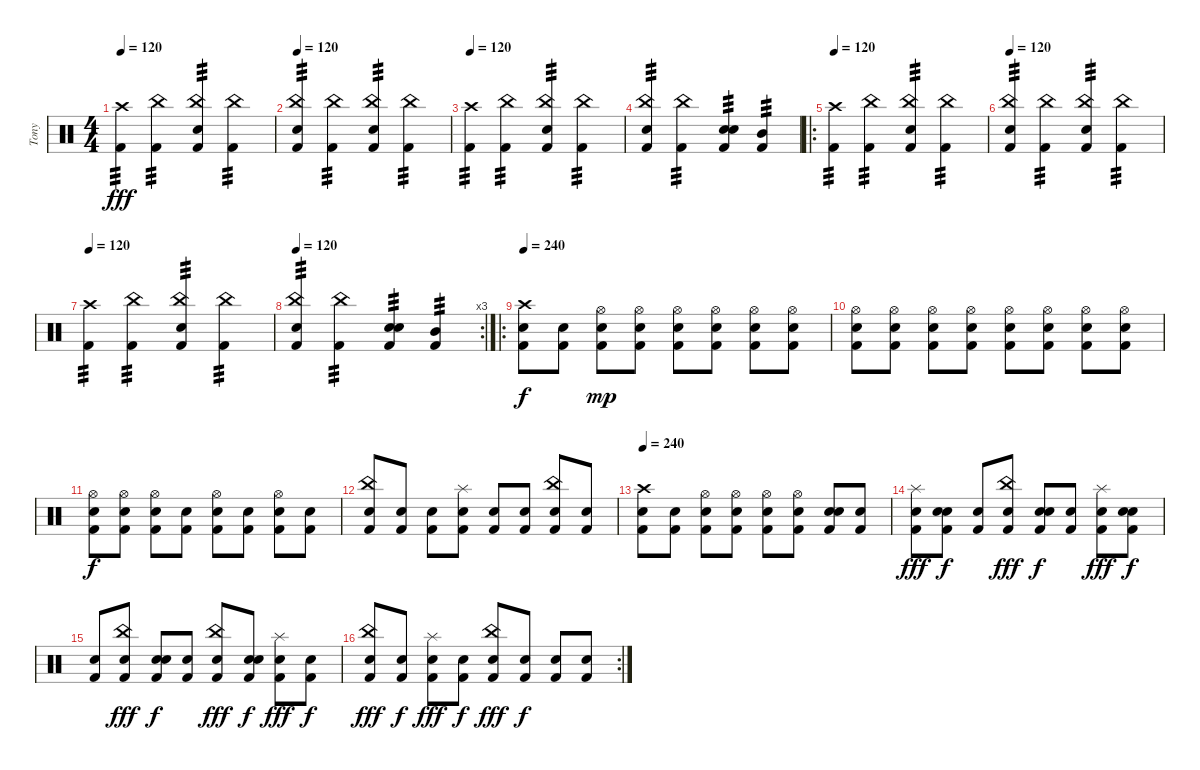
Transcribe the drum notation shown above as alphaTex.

\track ("Tony" "Tony") {instrument percussion}
\staff {score}
\articulation defaults
\ts (4 4)
\tempo 120
\clef neutral
\ks c
("Crash high (hit)" "Kick (hit) 2").4{tp 3 dy fff} ("China (hit)" "Kick (hit) 2").4{tp 3} ("China (hit)" "Snare (hit) 2" "Kick (hit) 2").4{tp 3} ("China (hit)" "Kick (hit) 2").4{tp 3} |
\tempo 120
("China (hit)" "Snare (hit)" "Kick (hit) 2").4{tp 3} ("China (hit)" "Kick (hit) 2").4{tp 3} ("China (hit)" "Snare (hit) 2" "Kick (hit) 2").4{tp 3} ("China (hit)" "Kick (hit) 2").4{tp 3} |
\tempo 120
("Crash high (hit)" "Kick (hit) 2").4{tp 3} ("China (hit)" "Kick (hit) 2").4{tp 3} ("China (hit)" "Snare (hit) 2" "Kick (hit) 2").4{tp 3} ("China (hit)" "Kick (hit) 2").4{tp 3} |
("China (hit)" "Snare (hit)" "Kick (hit) 2").4{tp 3} ("China (hit)" "Kick (hit) 2").4{tp 3} ("Snare (hit) 2" "Snare (hit)" "Kick (hit) 2").4{tp 3} ("Mid Tom (hit)" "Kick (hit) 2").4{tp 3} |
\ro
\tempo 120
("Crash high (hit)" "Kick (hit) 2").4{tp 3} ("China (hit)" "Kick (hit) 2").4{tp 3} ("China (hit)" "Snare (hit) 2" "Kick (hit) 2").4{tp 3} ("China (hit)" "Kick (hit) 2").4{tp 3} |
\tempo 120
("China (hit)" "Snare (hit)" "Kick (hit) 2").4{tp 3} ("China (hit)" "Kick (hit) 2").4{tp 3} ("China (hit)" "Snare (hit) 2" "Kick (hit) 2").4{tp 3} ("China (hit)" "Kick (hit) 2").4{tp 3} |
\tempo 120
("Crash high (hit)" "Kick (hit) 2").4{tp 3} ("China (hit)" "Kick (hit) 2").4{tp 3} ("China (hit)" "Snare (hit) 2" "Kick (hit) 2").4{tp 3} ("China (hit)" "Kick (hit) 2").4{tp 3} |
\rc 3
\tempo 120
("China (hit)" "Snare (hit)" "Kick (hit) 2").4{tp 3} ("China (hit)" "Kick (hit) 2").4{tp 3} ("Snare (hit) 2" "Snare (hit)" "Kick (hit) 2").4{tp 3} ("Mid Tom (hit)" "Kick (hit) 2").4{tp 3} |
\ro
\tempo 240
("Crash high (hit)" "Snare (hit) 2" "Kick (hit) 2").8{dy f} ("Snare (hit) 2" "Kick (hit) 2").8 ("Hi-Hat (open)" "Snare (hit) 2" "Kick (hit) 2").8{dy mp} ("Hi-Hat (open)" "Snare (hit) 2" "Kick (hit) 2").8 ("Hi-Hat (open)" "Snare (hit) 2" "Kick (hit) 2").8 ("Hi-Hat (open)" "Snare (hit) 2" "Kick (hit) 2").8 ("Hi-Hat (open)" "Snare (hit) 2" "Kick (hit) 2").8 ("Hi-Hat (open)" "Snare (hit) 2" "Kick (hit) 2").8 |
("Hi-Hat (open)" "Snare (hit) 2" "Kick (hit) 2").8 ("Hi-Hat (open)" "Snare (hit) 2" "Kick (hit) 2").8 ("Hi-Hat (open)" "Snare (hit) 2" "Kick (hit) 2").8 ("Hi-Hat (open)" "Snare (hit) 2" "Kick (hit) 2").8 ("Hi-Hat (open)" "Snare (hit) 2" "Kick (hit) 2").8 ("Hi-Hat (open)" "Snare (hit) 2" "Kick (hit) 2").8 ("Hi-Hat (open)" "Snare (hit) 2" "Kick (hit) 2").8 ("Hi-Hat (open)" "Snare (hit) 2" "Kick (hit) 2").8 |
("Hi-Hat (open)" "Snare (hit) 2" "Kick (hit) 2").8{dy f} ("Hi-Hat (open)" "Snare (hit) 2" "Kick (hit) 2").8 ("Hi-Hat (open)" "Snare (hit) 2" "Kick (hit) 2").8 ("Snare (hit) 2" "Kick (hit) 2").8 ("Hi-Hat (open)" "Snare (hit) 2" "Kick (hit) 2").8 ("Snare (hit) 2" "Kick (hit) 2").8 ("Hi-Hat (open)" "Snare (hit) 2" "Kick (hit) 2").8 ("Snare (hit) 2" "Kick (hit) 2").8 |
("China (hit)" "Snare (hit) 2" "Kick (hit) 2").8 ("Snare (hit) 2" "Kick (hit) 2").8 ("Snare (hit) 2" "Kick (hit) 2").8 ("Splash (hit)" "Snare (hit) 2" "Kick (hit) 2").8 ("Snare (hit) 2" "Kick (hit) 2").8 ("Snare (hit) 2" "Kick (hit) 2").8 ("China (hit)" "Snare (hit) 2" "Kick (hit) 2").8 ("Snare (hit) 2" "Kick (hit) 2").8 |
\tempo 240
("Crash high (hit)" "Snare (hit) 2" "Kick (hit) 2").8 ("Snare (hit) 2" "Kick (hit) 2").8 ("Hi-Hat (open)" "Snare (hit) 2" "Kick (hit) 2").8 ("Hi-Hat (open)" "Snare (hit) 2" "Kick (hit) 2").8 ("Hi-Hat (open)" "Snare (hit) 2" "Kick (hit) 2").8 ("Hi-Hat (open)" "Snare (hit) 2" "Kick (hit) 2").8 ("Snare (hit)" "Snare (hit) 2" "Kick (hit) 2").8 ("Snare (hit) 2" "Kick (hit) 2").8 |
("Splash (hit)" "Snare (hit) 2" "Kick (hit) 2").8{dy fff} ("Snare (hit)" "Snare (hit) 2" "Kick (hit) 2").8{dy f} ("Snare (hit) 2" "Kick (hit) 2").8 ("China (hit)" "Snare (hit) 2" "Kick (hit) 2").8{dy fff} ("Snare (hit)" "Snare (hit) 2" "Kick (hit) 2").8{dy f} ("Snare (hit) 2" "Kick (hit) 2").8 ("Splash (hit)" "Snare (hit) 2" "Kick (hit) 2").8{dy fff} ("Snare (hit)" "Snare (hit) 2" "Kick (hit) 2").8{dy f} |
("Snare (hit) 2" "Kick (hit) 2").8 ("China (hit)" "Snare (hit) 2" "Kick (hit) 2").8{dy fff} ("Snare (hit)" "Snare (hit) 2" "Kick (hit) 2").8{dy f} ("Snare (hit) 2" "Kick (hit) 2").8 ("China (hit)" "Snare (hit) 2" "Kick (hit) 2").8{dy fff} ("Snare (hit)" "Snare (hit) 2" "Kick (hit) 2").8{dy f} ("Splash (hit)" "Snare (hit) 2" "Kick (hit) 2").8{dy fff} ("Snare (hit) 2" "Kick (hit) 2").8{dy f} |
\rc 2
("China (hit)" "Snare (hit) 2" "Kick (hit) 2").8{dy fff} ("Snare (hit) 2" "Kick (hit) 2").8{dy f} ("Splash (hit)" "Snare (hit) 2" "Kick (hit) 2").8{dy fff} ("Snare (hit) 2" "Kick (hit) 2").8{dy f} ("China (hit)" "Snare (hit) 2" "Kick (hit) 2").8{dy fff} ("Snare (hit) 2" "Kick (hit) 2").8{dy f} ("Snare (hit) 2" "Kick (hit) 2").8 ("Snare (hit) 2" "Kick (hit) 2").8
